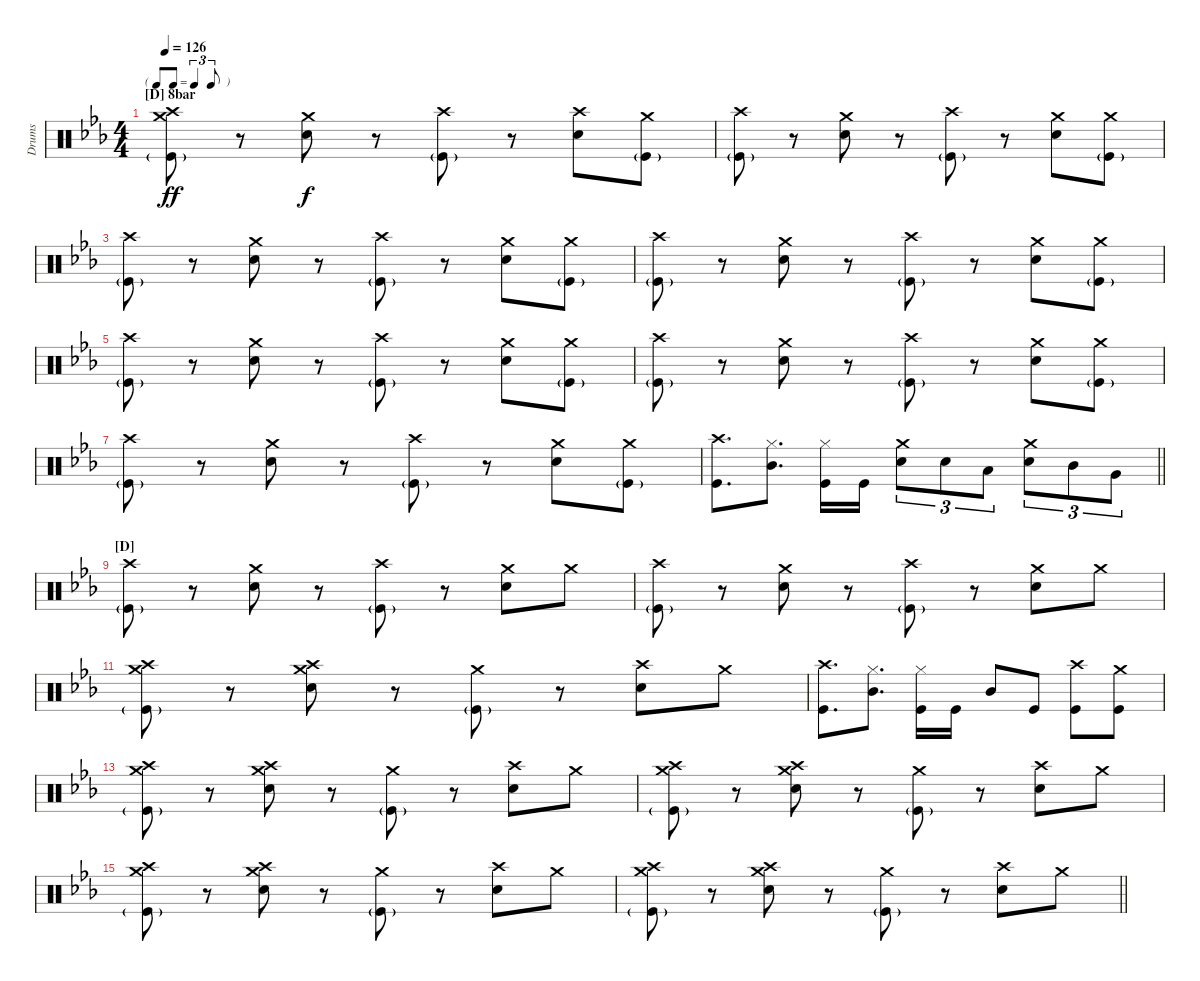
\bracketExtendMode nobrackets
\otherSystemsTrackNameOrientation horizontal
\defaultBarNumberDisplay FirstOfSystem
\track ("Drumkit" "Drums") {instrument percussion}
\staff {score}
\articulation defaults
\ts (4 4)
\tf triplet8th
\section ("D" "8bar")
\tempo 126
\clef neutral
\ks cminor
("Kick (hit)"{g} "Crash high (hit)" "Crash medium (hit)").8{dy ff} r.8 ("Snare (hit) 2" "Crash medium (hit)").8{dy f} r.8 ("Kick (hit)"{g} "Crash high (hit)").8 r.8 ("Snare (hit) 2" "Crash high (hit)").8 ("Crash medium (hit)" "Kick (hit)"{g}).8 |
("Kick (hit)"{g} "Crash high (hit)").8 r.8 ("Snare (hit) 2" "Crash medium (hit)").8 r.8 ("Kick (hit)"{g} "Crash high (hit)").8 r.8 ("Snare (hit) 2" "Crash medium (hit)").8 ("Crash medium (hit)" "Kick (hit)"{g}).8 |
("Kick (hit)"{g} "Crash high (hit)").8 r.8 ("Snare (hit) 2" "Crash medium (hit)").8 r.8 ("Kick (hit)"{g} "Crash high (hit)").8 r.8 ("Snare (hit) 2" "Crash medium (hit)").8 ("Crash medium (hit)" "Kick (hit)"{g}).8 |
("Kick (hit)"{g} "Crash high (hit)").8 r.8 ("Snare (hit) 2" "Crash medium (hit)").8 r.8 ("Kick (hit)"{g} "Crash high (hit)").8 r.8 ("Snare (hit) 2" "Crash medium (hit)").8 ("Crash medium (hit)" "Kick (hit)"{g}).8 |
("Kick (hit)"{g} "Crash high (hit)").8 r.8 ("Snare (hit) 2" "Crash medium (hit)").8 r.8 ("Kick (hit)"{g} "Crash high (hit)").8 r.8 ("Snare (hit) 2" "Crash medium (hit)").8 ("Crash medium (hit)" "Kick (hit)"{g}).8 |
("Kick (hit)"{g} "Crash high (hit)").8 r.8 ("Snare (hit) 2" "Crash medium (hit)").8 r.8 ("Kick (hit)"{g} "Crash high (hit)").8 r.8 ("Snare (hit) 2" "Crash medium (hit)").8 ("Crash medium (hit)" "Kick (hit)"{g}).8 |
("Kick (hit)"{g} "Crash high (hit)").8 r.8 ("Snare (hit) 2" "Crash medium (hit)").8 r.8 ("Kick (hit)"{g} "Crash high (hit)").8 r.8 ("Snare (hit) 2" "Crash medium (hit)").8 ("Crash medium (hit)" "Kick (hit)"{g}).8 |
\barLineRight lightlight
("Kick (hit)" "Crash high (hit)").8{d} ("Mid Tom (hit)" "Hi-Hat (closed)").8{d} ("Kick (hit)" "Hi-Hat (closed)").16 "Kick (hit)".16 ("Snare (hit) 2" "Crash medium (hit)").8{tu (3 2)} "Snare (hit) 2".8{tu (3 2)} "Low Tom (hit)".8{tu (3 2)} ("Crash medium (hit)" "Snare (hit) 2").8{tu (3 2)} "Mid Tom (hit)".8{tu (3 2)} "Very Low Tom (hit)".8{tu (3 2)} |
\section ("D" "")
("Kick (hit)"{g} "Crash high (hit)").8 r.8 ("Snare (hit) 2" "Crash medium (hit)").8 r.8 ("Kick (hit)"{g} "Crash high (hit)").8 r.8 ("Snare (hit) 2" "Crash medium (hit)").8 "Crash medium (hit)".8 |
("Kick (hit)"{g} "Crash high (hit)").8 r.8 ("Snare (hit) 2" "Crash medium (hit)").8 r.8 ("Kick (hit)"{g} "Crash high (hit)").8 r.8 ("Snare (hit) 2" "Crash medium (hit)").8 "Crash medium (hit)".8 |
("Kick (hit)"{g} "Crash medium (hit)" "Crash high (hit)").8 r.8 ("Snare (hit) 2" "Crash medium (hit)" "Crash high (hit)").8 r.8 ("Kick (hit)"{g} "Crash medium (hit)").8 r.8 ("Snare (hit) 2" "Crash high (hit)").8 "Crash medium (hit)".8 |
("Kick (hit)" "Crash high (hit)").8{d} ("Mid Tom (hit)" "Hi-Hat (closed)").8{d} ("Kick (hit)" "Hi-Hat (closed)").16 "Kick (hit)".16 "Mid Tom (hit)".8 "Kick (hit)".8 ("Kick (hit)" "Crash high (hit)").8 ("Kick (hit)" "Crash medium (hit)").8 |
("Kick (hit)"{g} "Crash medium (hit)" "Crash high (hit)").8 r.8 ("Snare (hit) 2" "Crash medium (hit)" "Crash high (hit)").8 r.8 ("Kick (hit)"{g} "Crash medium (hit)").8 r.8 ("Snare (hit) 2" "Crash high (hit)").8 "Crash medium (hit)".8 |
("Kick (hit)"{g} "Crash medium (hit)" "Crash high (hit)").8 r.8 ("Snare (hit) 2" "Crash medium (hit)" "Crash high (hit)").8 r.8 ("Kick (hit)"{g} "Crash medium (hit)").8 r.8 ("Snare (hit) 2" "Crash high (hit)").8 "Crash medium (hit)".8 |
("Kick (hit)"{g} "Crash medium (hit)" "Crash high (hit)").8 r.8 ("Snare (hit) 2" "Crash medium (hit)" "Crash high (hit)").8 r.8 ("Kick (hit)"{g} "Crash medium (hit)").8 r.8 ("Snare (hit) 2" "Crash high (hit)").8 "Crash medium (hit)".8 |
\barLineRight lightlight
("Kick (hit)"{g} "Crash medium (hit)" "Crash high (hit)").8 r.8 ("Snare (hit) 2" "Crash medium (hit)" "Crash high (hit)").8 r.8 ("Kick (hit)"{g} "Crash medium (hit)").8 r.8 ("Snare (hit) 2" "Crash high (hit)").8 "Crash medium (hit)".8
